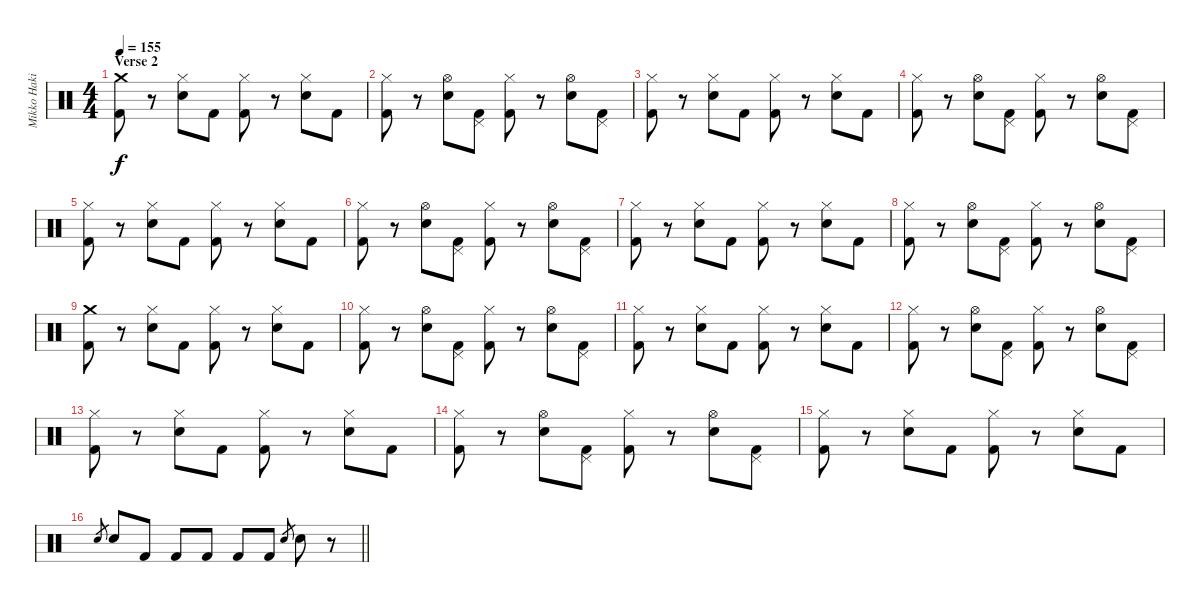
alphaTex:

\track ("Mikko Hakila - Drums" "Mikko Haki") {instrument percussion}
\staff {score}
\articulation defaults
\ts (4 4)
\section ("" "Verse 2")
\tempo 155
\clef neutral
\ks c
("Crash medium (hit)" "Kick (hit) 2").8{dy f} r.8 ("Hi-Hat (closed)" "Electric Snare (hit)").8 "Kick (hit) 2".8 ("Hi-Hat (closed)" "Kick (hit) 2").8 r.8 ("Hi-Hat (closed)" "Electric Snare (hit)").8 "Kick (hit) 2".8 |
("Hi-Hat (closed)" "Kick (hit) 2").8 r.8 ("Hi-Hat (open)" "Electric Snare (hit)").8 ("Pedal Hi-Hat (hit)" "Kick (hit) 2").8 ("Hi-Hat (closed)" "Kick (hit) 2").8 r.8 ("Hi-Hat (open)" "Electric Snare (hit)").8 ("Pedal Hi-Hat (hit)" "Kick (hit) 2").8 |
("Hi-Hat (closed)" "Kick (hit) 2").8 r.8 ("Hi-Hat (closed)" "Electric Snare (hit)").8 "Kick (hit) 2".8 ("Hi-Hat (closed)" "Kick (hit) 2").8 r.8 ("Hi-Hat (closed)" "Electric Snare (hit)").8 "Kick (hit) 2".8 |
("Hi-Hat (closed)" "Kick (hit) 2").8 r.8 ("Hi-Hat (open)" "Electric Snare (hit)").8 ("Pedal Hi-Hat (hit)" "Kick (hit) 2").8 ("Hi-Hat (closed)" "Kick (hit) 2").8 r.8 ("Hi-Hat (open)" "Electric Snare (hit)").8 ("Pedal Hi-Hat (hit)" "Kick (hit) 2").8 |
("Hi-Hat (closed)" "Kick (hit) 2").8 r.8 ("Hi-Hat (closed)" "Electric Snare (hit)").8 "Kick (hit) 2".8 ("Hi-Hat (closed)" "Kick (hit) 2").8 r.8 ("Hi-Hat (closed)" "Electric Snare (hit)").8 "Kick (hit) 2".8 |
("Hi-Hat (closed)" "Kick (hit) 2").8 r.8 ("Hi-Hat (open)" "Electric Snare (hit)").8 ("Pedal Hi-Hat (hit)" "Kick (hit) 2").8 ("Hi-Hat (closed)" "Kick (hit) 2").8 r.8 ("Hi-Hat (open)" "Electric Snare (hit)").8 ("Pedal Hi-Hat (hit)" "Kick (hit) 2").8 |
("Hi-Hat (closed)" "Kick (hit) 2").8 r.8 ("Hi-Hat (closed)" "Electric Snare (hit)").8 "Kick (hit) 2".8 ("Hi-Hat (closed)" "Kick (hit) 2").8 r.8 ("Hi-Hat (closed)" "Electric Snare (hit)").8 "Kick (hit) 2".8 |
("Hi-Hat (closed)" "Kick (hit) 2").8 r.8 ("Hi-Hat (open)" "Electric Snare (hit)").8 ("Pedal Hi-Hat (hit)" "Kick (hit) 2").8 ("Hi-Hat (closed)" "Kick (hit) 2").8 r.8 ("Hi-Hat (open)" "Electric Snare (hit)").8 ("Pedal Hi-Hat (hit)" "Kick (hit) 2").8 |
("Crash medium (hit)" "Kick (hit) 2").8 r.8 ("Hi-Hat (closed)" "Electric Snare (hit)").8 "Kick (hit) 2".8 ("Hi-Hat (closed)" "Kick (hit) 2").8 r.8 ("Hi-Hat (closed)" "Electric Snare (hit)").8 "Kick (hit) 2".8 |
("Hi-Hat (closed)" "Kick (hit) 2").8 r.8 ("Hi-Hat (open)" "Electric Snare (hit)").8 ("Pedal Hi-Hat (hit)" "Kick (hit) 2").8 ("Hi-Hat (closed)" "Kick (hit) 2").8 r.8 ("Hi-Hat (open)" "Electric Snare (hit)").8 ("Pedal Hi-Hat (hit)" "Kick (hit) 2").8 |
("Hi-Hat (closed)" "Kick (hit) 2").8 r.8 ("Hi-Hat (closed)" "Electric Snare (hit)").8 "Kick (hit) 2".8 ("Hi-Hat (closed)" "Kick (hit) 2").8 r.8 ("Hi-Hat (closed)" "Electric Snare (hit)").8 "Kick (hit) 2".8 |
("Hi-Hat (closed)" "Kick (hit) 2").8 r.8 ("Hi-Hat (open)" "Electric Snare (hit)").8 ("Pedal Hi-Hat (hit)" "Kick (hit) 2").8 ("Hi-Hat (closed)" "Kick (hit) 2").8 r.8 ("Hi-Hat (open)" "Electric Snare (hit)").8 ("Pedal Hi-Hat (hit)" "Kick (hit) 2").8 |
("Hi-Hat (closed)" "Kick (hit) 2").8 r.8 ("Hi-Hat (closed)" "Electric Snare (hit)").8 "Kick (hit) 2".8 ("Hi-Hat (closed)" "Kick (hit) 2").8 r.8 ("Hi-Hat (closed)" "Electric Snare (hit)").8 "Kick (hit) 2".8 |
("Hi-Hat (closed)" "Kick (hit) 2").8 r.8 ("Hi-Hat (open)" "Electric Snare (hit)").8 ("Pedal Hi-Hat (hit)" "Kick (hit) 2").8 ("Hi-Hat (closed)" "Kick (hit) 2").8 r.8 ("Hi-Hat (open)" "Electric Snare (hit)").8 ("Pedal Hi-Hat (hit)" "Kick (hit) 2").8 |
("Hi-Hat (closed)" "Kick (hit) 2").8 r.8 ("Hi-Hat (closed)" "Electric Snare (hit)").8 "Kick (hit) 2".8 ("Hi-Hat (closed)" "Kick (hit) 2").8 r.8 ("Hi-Hat (closed)" "Electric Snare (hit)").8 "Kick (hit) 2".8 |
\barLineRight lightlight "Electric Snare (hit)".8{gr} "Electric Snare (hit)".8 "Kick (hit) 2".8 "Kick (hit) 2".8 "Kick (hit) 2".8 "Kick (hit) 2".8 "Kick (hit) 2".8 "Electric Snare (hit)".8{gr} "Electric Snare (hit)".8
r.8
